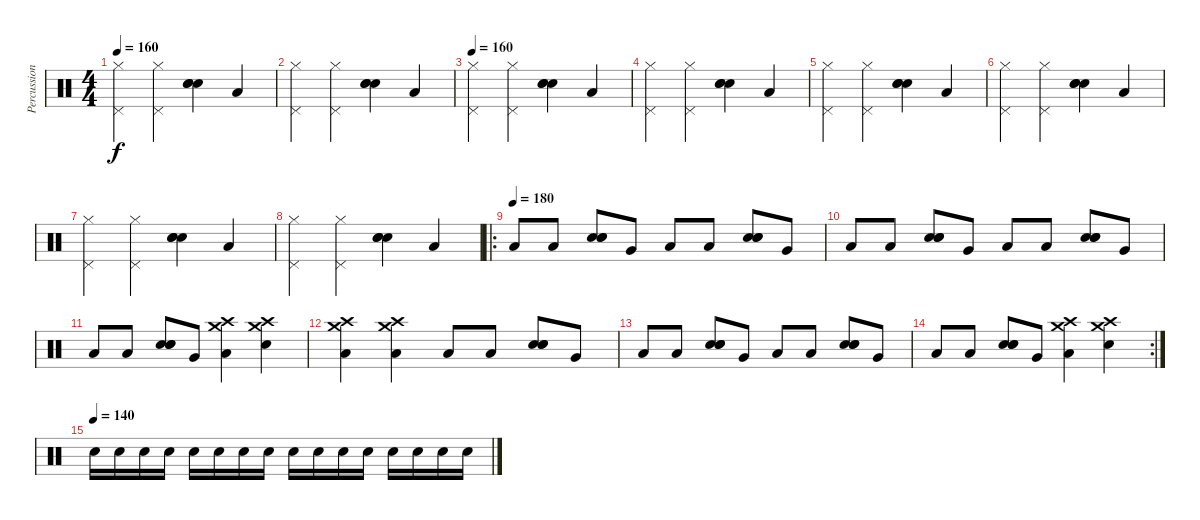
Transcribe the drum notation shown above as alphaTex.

\track ("Percussions" "Percussion") {instrument percussion}
\staff {score}
\articulation defaults
\ts (4 4)
\tempo 160
\clef neutral
\ks c
("Pedal Hi-Hat (hit)" "Hi-Hat (closed)").4{dy f} ("Pedal Hi-Hat (hit)" "Hi-Hat (closed)").4 ("Electric Snare (hit)" "Electric Snare (hit)" "Electric Snare (hit)").4 "Low Floor Tom (hit)".4 |
("Pedal Hi-Hat (hit)" "Hi-Hat (closed)").4 ("Pedal Hi-Hat (hit)" "Hi-Hat (closed)").4 ("Electric Snare (hit)" "Electric Snare (hit)" "Electric Snare (hit)").4 "Low Floor Tom (hit)".4 |
\tempo 160
("Pedal Hi-Hat (hit)" "Hi-Hat (closed)").4 ("Pedal Hi-Hat (hit)" "Hi-Hat (closed)").4 ("Electric Snare (hit)" "Electric Snare (hit)" "Electric Snare (hit)").4 "Low Floor Tom (hit)".4 |
("Pedal Hi-Hat (hit)" "Hi-Hat (closed)").4 ("Pedal Hi-Hat (hit)" "Hi-Hat (closed)").4 ("Electric Snare (hit)" "Electric Snare (hit)" "Electric Snare (hit)").4 "Low Floor Tom (hit)".4 |
("Pedal Hi-Hat (hit)" "Hi-Hat (closed)").4 ("Pedal Hi-Hat (hit)" "Hi-Hat (closed)").4 ("Electric Snare (hit)" "Electric Snare (hit)" "Electric Snare (hit)").4 "Low Floor Tom (hit)".4 |
("Pedal Hi-Hat (hit)" "Hi-Hat (closed)").4 ("Pedal Hi-Hat (hit)" "Hi-Hat (closed)").4 ("Electric Snare (hit)" "Electric Snare (hit)" "Electric Snare (hit)").4 "Low Floor Tom (hit)".4 |
("Pedal Hi-Hat (hit)" "Hi-Hat (closed)").4 ("Pedal Hi-Hat (hit)" "Hi-Hat (closed)").4 ("Electric Snare (hit)" "Electric Snare (hit)" "Electric Snare (hit)").4 "Low Floor Tom (hit)".4 |
("Pedal Hi-Hat (hit)" "Hi-Hat (closed)").4 ("Pedal Hi-Hat (hit)" "Hi-Hat (closed)").4 ("Electric Snare (hit)" "Electric Snare (hit)" "Electric Snare (hit)").4 "Low Floor Tom (hit)".4 |
\ro
\tempo (180)
"Low Floor Tom (hit)".8 "Low Floor Tom (hit)".8 ("Electric Snare (hit)" "Electric Snare (hit)" "Electric Snare (hit)").8 "Very Low Tom (hit)".8 "Low Floor Tom (hit)".8 "Low Floor Tom (hit)".8 ("Electric Snare (hit)" "Electric Snare (hit)" "Electric Snare (hit)").8 "Very Low Tom (hit)".8 |
"Low Floor Tom (hit)".8 "Low Floor Tom (hit)".8 ("Electric Snare (hit)" "Electric Snare (hit)" "Electric Snare (hit)").8 "Very Low Tom (hit)".8 "Low Floor Tom (hit)".8 "Low Floor Tom (hit)".8 ("Electric Snare (hit)" "Electric Snare (hit)" "Electric Snare (hit)").8 "Very Low Tom (hit)".8 |
"Low Floor Tom (hit)".8 "Low Floor Tom (hit)".8 ("Electric Snare (hit)" "Electric Snare (hit)" "Electric Snare (hit)").8 "Very Low Tom (hit)".8 ("Crash high (hit)" "Low Floor Tom (hit)" "Crash medium (hit)").4 ("Crash high (hit)" "Electric Snare (hit)" "Crash medium (hit)").4 |
("Crash high (hit)" "Low Floor Tom (hit)" "Crash medium (hit)").4 ("Crash high (hit)" "Low Floor Tom (hit)" "Crash medium (hit)").4 "Low Floor Tom (hit)".8 "Low Floor Tom (hit)".8 ("Electric Snare (hit)" "Electric Snare (hit)" "Electric Snare (hit)").8 "Very Low Tom (hit)".8 |
"Low Floor Tom (hit)".8 "Low Floor Tom (hit)".8 ("Electric Snare (hit)" "Electric Snare (hit)" "Electric Snare (hit)").8 "Very Low Tom (hit)".8 "Low Floor Tom (hit)".8 "Low Floor Tom (hit)".8 ("Electric Snare (hit)" "Electric Snare (hit)" "Electric Snare (hit)").8 "Very Low Tom (hit)".8 |
\rc 2 "Low Floor Tom (hit)".8 "Low Floor Tom (hit)".8
("Electric Snare (hit)" "Electric Snare (hit)" "Electric Snare (hit)").8 "Very Low Tom (hit)".8 ("Crash high (hit)" "Low Floor Tom (hit)" "Crash medium (hit)").4 ("Crash high (hit)" "Electric Snare (hit)" "Crash medium (hit)").4 |
\tempo (140)
"Electric Snare (hit)".16{volume 6} "Electric Snare (hit)".16 "Electric Snare (hit)".16 "Electric Snare (hit)".16 "Electric Snare (hit)".16 "Electric Snare (hit)".16 "Electric Snare (hit)".16 "Electric Snare (hit)".16 "Electric Snare (hit)".16 "Electric Snare (hit)".16 "Electric Snare (hit)".16 "Electric Snare (hit)".16 "Electric Snare (hit)".16 "Electric Snare (hit)".16 "Electric Snare (hit)".16 "Electric Snare (hit)".16
